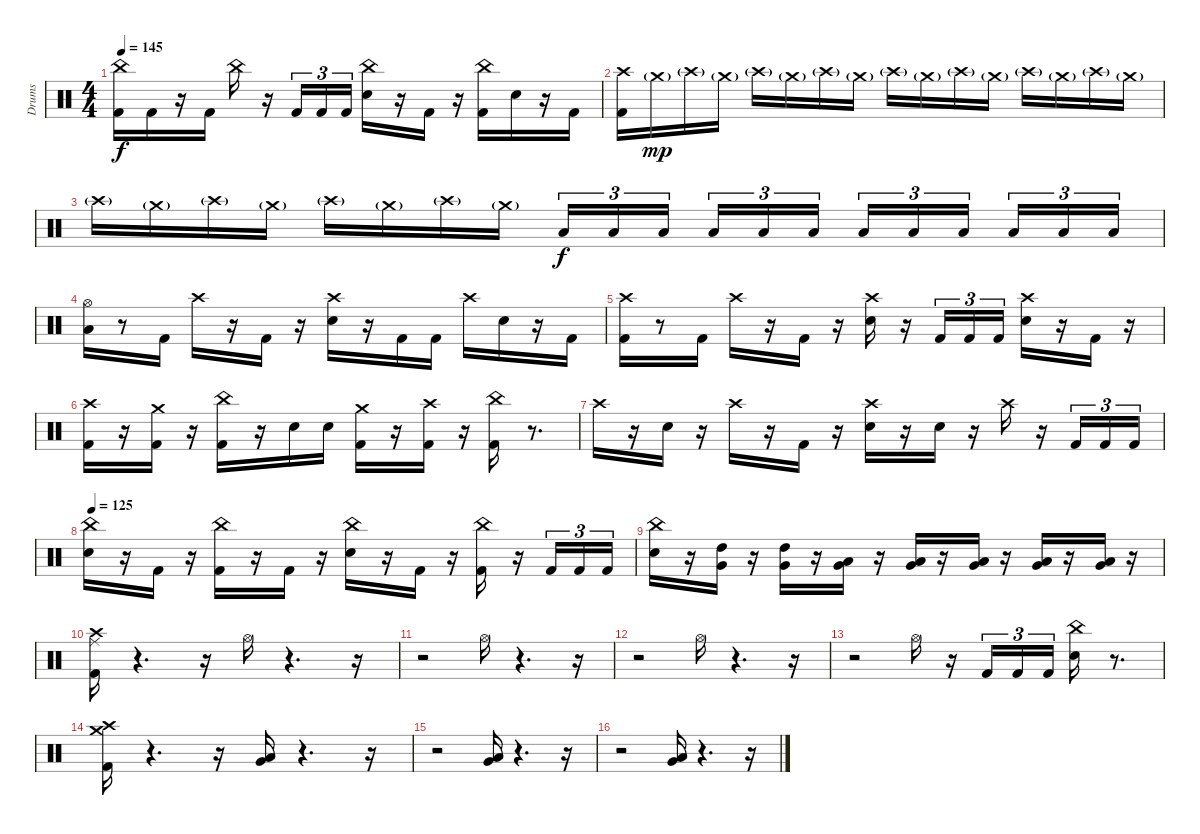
\track ("Drums" "Drums") {instrument percussion}
\staff {score}
\articulation defaults
\ts (4 4)
\tempo 145
\clef neutral
\ks c
("Kick (hit) 2" "China (hit)").16{dy f} "Kick (hit) 2".16 r.16 "Kick (hit) 2".16 "China (hit)".16 r.16 "Kick (hit) 2".16{tu (3 2)} "Kick (hit) 2".16{tu (3 2)} "Kick (hit) 2".16{tu (3 2)} ("Snare (hit) 2" "China (hit)").16 r.16 "Kick (hit) 2".16 r.16 ("Kick (hit) 2" "China (hit)").16 "Snare (hit) 2".16 r.16 "Kick (hit) 2".16 |
("Crash high (hit)" "Kick (hit) 2").16 "Crash medium (hit)"{g}.16{dy mp} "Crash high (hit)"{g}.16 "Crash medium (hit)"{g}.16 "Crash high (hit)"{g}.16 "Crash medium (hit)"{g}.16 "Crash high (hit)"{g}.16 "Crash medium (hit)"{g}.16 "Crash high (hit)"{g}.16 "Crash medium (hit)"{g}.16 "Crash high (hit)"{g}.16 "Crash medium (hit)"{g}.16 "Crash high (hit)"{g}.16 "Crash medium (hit)"{g}.16 "Crash high (hit)"{g}.16 "Crash medium (hit)"{g}.16 |
"Crash high (hit)"{g}.16 "Crash medium (hit)"{g}.16 "Crash high (hit)"{g}.16 "Crash medium (hit)"{g}.16 "Crash high (hit)"{g}.16 "Crash medium (hit)"{g}.16 "Crash high (hit)"{g}.16 "Crash medium (hit)"{g}.16 "Low Tom (hit)".16{tu (3 2) dy f} "Low Tom (hit)".16{tu (3 2)} "Low Tom (hit)".16{tu (3 2) beam splitsecondary} "Low Tom (hit)".16{tu (3 2)} "Low Tom (hit)".16{tu (3 2)} "Low Tom (hit)".16{tu (3 2)} "Low Floor Tom (hit)".16{tu (3 2)} "Low Floor Tom (hit)".16{tu (3 2)} "Low Floor Tom (hit)".16{tu (3 2) beam splitsecondary} "Low Floor Tom (hit)".16{tu (3 2)} "Low Floor Tom (hit)".16{tu (3 2)} "Low Floor Tom (hit)".16{tu (3 2)} |
("Low Tom (hit)" "Hi-Hat (open)").16 r.8 "Kick (hit) 2".16 "Crash high (hit)".16 r.16 "Kick (hit) 2".16 r.16 ("Snare (hit) 2" "Crash high (hit)").16 r.16 "Kick (hit) 2".16 "Kick (hit) 2".16 "Crash high (hit)".16 "Snare (hit) 2".16 r.16 "Kick (hit) 2".16 |
("Kick (hit) 2" "Crash high (hit)").16 r.8 "Kick (hit) 2".16 "Crash high (hit)".16 r.16 "Kick (hit) 2".16 r.16 ("Snare (hit) 2" "Crash high (hit)").16 r.16 "Kick (hit) 2".16{tu (3 2)} "Kick (hit) 2".16{tu (3 2)} "Kick (hit) 2".16{tu (3 2)} ("Snare (hit) 2" "Crash high (hit)").16 r.16 "Kick (hit) 2".16 r.16 |
("Kick (hit) 2" "Crash high (hit)").16 r.16 ("Kick (hit) 2" "Crash medium (hit)").16 r.16 ("Kick (hit) 2" "China (hit)").16 r.16 "Snare (hit) 2".16 "Snare (hit) 2".16 ("Kick (hit) 2" "Crash medium (hit)").16 r.16 ("Kick (hit) 2" "Crash high (hit)").16 r.16 ("Kick (hit) 2" "China (hit)").16 r.8{d} |
"Crash high (hit)".16 r.16 "Snare (hit) 2".16 r.16 "Crash high (hit)".16 r.16 "Kick (hit) 2".16 r.16 ("Snare (hit) 2" "Crash high (hit)").16 r.16 "Snare (hit) 2".16 r.16 "Crash high (hit)".16 r.16 "Kick (hit) 2".16{tu (3 2)} "Kick (hit) 2".16{tu (3 2)} "Kick (hit) 2".16{tu (3 2)} |
\tempo 125
("Snare (hit) 2" "China (hit)").16 r.16 "Kick (hit) 2".16 r.16 ("Kick (hit) 2" "China (hit)").16 r.16 "Kick (hit) 2".16 r.16 ("Snare (hit) 2" "China (hit)").16 r.16 "Kick (hit) 2".16 r.16 ("Kick (hit) 2" "China (hit)").16 r.16 "Kick (hit) 2".16{tu (3 2)} "Kick (hit) 2".16{tu (3 2)} "Kick (hit) 2".16{tu (3 2)} |
("Snare (hit) 2" "China (hit)").16 r.16 ("High Tom (hit)" "Very Low Tom (hit)").16 r.16 ("High Tom (hit)" "Very Low Tom (hit)").16 r.16 ("Low Tom (hit)" "Very Low Tom (hit)").16 r.16 ("Low Tom (hit)" "Very Low Tom (hit)").16 r.16 ("Low Floor Tom (hit)" "Very Low Tom (hit)").16 r.16 ("Low Floor Tom (hit)" "Very Low Tom (hit)").16 r.16 ("Low Floor Tom (hit)" "Very Low Tom (hit)").16 r.16 |
("Kick (hit) 2" "Crash high (hit)" "Ride (middle)").16 r.4{d} r.16 "Hi-Hat (open)".16 r.4{d} r.16 |
r.2 "Hi-Hat (open)".16 r.4{d} r.16 |
r.2 "Hi-Hat (open)".16 r.4{d} r.16 |
r.2 "Hi-Hat (open)".16 r.16 "Kick (hit) 2".16{tu (3 2)} "Kick (hit) 2".16{tu (3 2)} "Kick (hit) 2".16{tu (3 2)} ("Snare (hit) 2" "China (hit)").16 r.8{d} |
("Kick (hit) 2" "Crash high (hit)" "Crash medium (hit)").16 r.4{d} r.16 ("Low Floor Tom (hit)" "Very Low Tom (hit)").16 r.4{d} r.16 |
r.2 ("Low Floor Tom (hit)" "Very Low Tom (hit)").16 r.4{d} r.16 |
r.2 ("Low Floor Tom (hit)" "Very Low Tom (hit)").16 r.4{d} r.16
